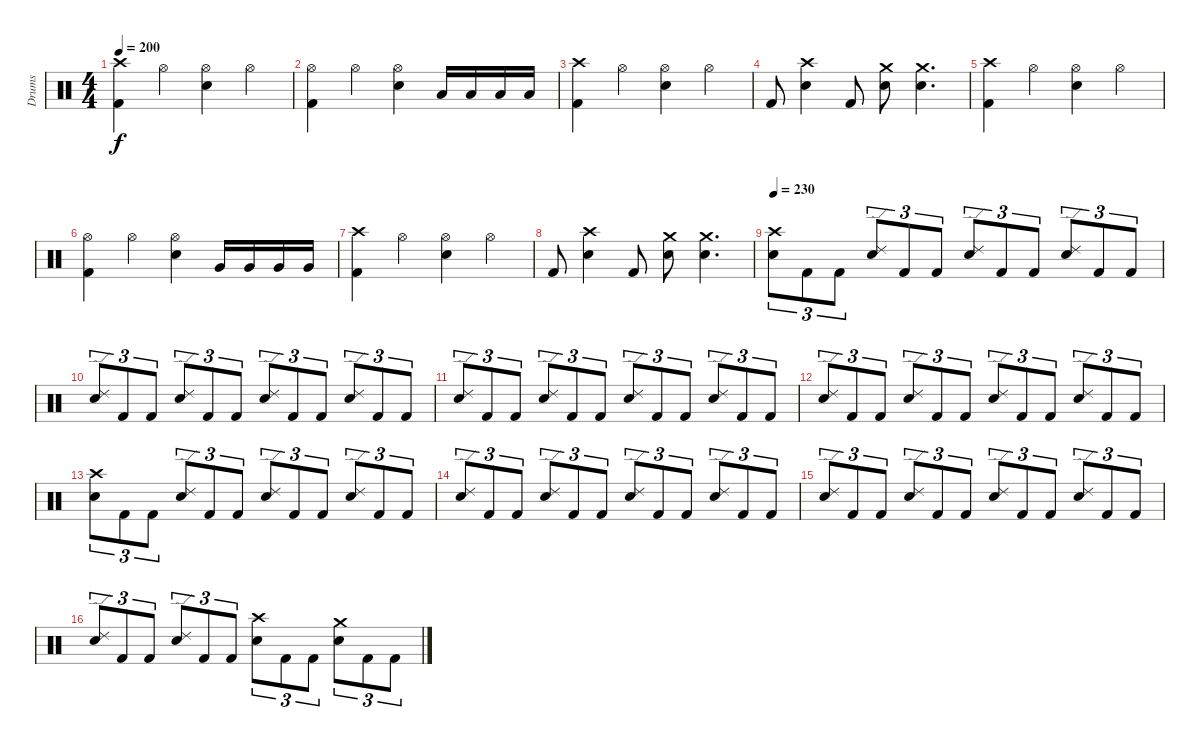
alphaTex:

\track ("Drums" "Drums") {instrument percussion}
\staff {score}
\articulation defaults
\ts (4 4)
\tempo 200
\clef neutral
\ks c
("Crash high (hit)" "Kick (hit) 2").4{dy f} "Hi-Hat (open)".4 ("Hi-Hat (open)" "Electric Snare (hit)").4 "Hi-Hat (open)".4 |
("Hi-Hat (open)" "Kick (hit) 2").4 "Hi-Hat (open)".4 ("Hi-Hat (open)" "Electric Snare (hit)").4 "Low Tom (hit)".16 "Low Tom (hit)".16 "Low Tom (hit)".16 "Low Tom (hit)".16 |
("Crash high (hit)" "Kick (hit) 2").4 "Hi-Hat (open)".4 ("Hi-Hat (open)" "Electric Snare (hit)").4 "Hi-Hat (open)".4 |
"Kick (hit) 2".8 ("Crash high (hit)" "Electric Snare (hit)").4 "Kick (hit) 2".8 ("Crash medium (hit)" "Electric Snare (hit)").8 ("Crash medium (hit)" "Electric Snare (hit)").4{d} |
("Crash high (hit)" "Kick (hit) 2").4 "Hi-Hat (open)".4 ("Hi-Hat (open)" "Electric Snare (hit)").4 "Hi-Hat (open)".4 |
("Hi-Hat (open)" "Kick (hit) 2").4 "Hi-Hat (open)".4 ("Hi-Hat (open)" "Electric Snare (hit)").4 "Very Low Tom (hit)".16 "Very Low Tom (hit)".16 "Very Low Tom (hit)".16 "Very Low Tom (hit)".16 |
("Crash high (hit)" "Kick (hit) 2").4 "Hi-Hat (open)".4 ("Hi-Hat (open)" "Electric Snare (hit)").4 "Hi-Hat (open)".4 |
"Kick (hit) 2".8 ("Crash high (hit)" "Electric Snare (hit)").4 "Kick (hit) 2".8 ("Crash medium (hit)" "Electric Snare (hit)").8 ("Crash medium (hit)" "Electric Snare (hit)").4{d} |
\tempo 230
("Crash high (hit)" "Electric Snare (hit)").8{tu (3 2)} "Kick (hit) 2".8{tu (3 2)} "Kick (hit) 2".8{tu (3 2)} ("Ride (edge) 2" "Electric Snare (hit)").8{tu (3 2)} "Kick (hit) 2".8{tu (3 2)} "Kick (hit) 2".8{tu (3 2)} ("Ride (edge) 2" "Electric Snare (hit)").8{tu (3 2)} "Kick (hit) 2".8{tu (3 2)} "Kick (hit) 2".8{tu (3 2)} ("Ride (edge) 2" "Electric Snare (hit)").8{tu (3 2)} "Kick (hit) 2".8{tu (3 2)} "Kick (hit) 2".8{tu (3 2)} |
("Ride (edge) 2" "Electric Snare (hit)").8{tu (3 2)} "Kick (hit) 2".8{tu (3 2)} "Kick (hit) 2".8{tu (3 2)} ("Ride (edge) 2" "Electric Snare (hit)").8{tu (3 2)} "Kick (hit) 2".8{tu (3 2)} "Kick (hit) 2".8{tu (3 2)} ("Ride (edge) 2" "Electric Snare (hit)").8{tu (3 2)} "Kick (hit) 2".8{tu (3 2)} "Kick (hit) 2".8{tu (3 2)} ("Ride (edge) 2" "Electric Snare (hit)").8{tu (3 2)} "Kick (hit) 2".8{tu (3 2)} "Kick (hit) 2".8{tu (3 2)} |
("Ride (edge) 2" "Electric Snare (hit)").8{tu (3 2)} "Kick (hit) 2".8{tu (3 2)} "Kick (hit) 2".8{tu (3 2)} ("Ride (edge) 2" "Electric Snare (hit)").8{tu (3 2)} "Kick (hit) 2".8{tu (3 2)} "Kick (hit) 2".8{tu (3 2)} ("Ride (edge) 2" "Electric Snare (hit)").8{tu (3 2)} "Kick (hit) 2".8{tu (3 2)} "Kick (hit) 2".8{tu (3 2)} ("Ride (edge) 2" "Electric Snare (hit)").8{tu (3 2)} "Kick (hit) 2".8{tu (3 2)} "Kick (hit) 2".8{tu (3 2)} |
("Ride (edge) 2" "Electric Snare (hit)").8{tu (3 2)} "Kick (hit) 2".8{tu (3 2)} "Kick (hit) 2".8{tu (3 2)} ("Ride (edge) 2" "Electric Snare (hit)").8{tu (3 2)} "Kick (hit) 2".8{tu (3 2)} "Kick (hit) 2".8{tu (3 2)} ("Ride (edge) 2" "Electric Snare (hit)").8{tu (3 2)} "Kick (hit) 2".8{tu (3 2)} "Kick (hit) 2".8{tu (3 2)} ("Ride (edge) 2" "Electric Snare (hit)").8{tu (3 2)} "Kick (hit) 2".8{tu (3 2)} "Kick (hit) 2".8{tu (3 2)} |
("Crash high (hit)" "Electric Snare (hit)").8{tu (3 2)} "Kick (hit) 2".8{tu (3 2)} "Kick (hit) 2".8{tu (3 2)} ("Ride (edge) 2" "Electric Snare (hit)").8{tu (3 2)} "Kick (hit) 2".8{tu (3 2)} "Kick (hit) 2".8{tu (3 2)} ("Ride (edge) 2" "Electric Snare (hit)").8{tu (3 2)} "Kick (hit) 2".8{tu (3 2)} "Kick (hit) 2".8{tu (3 2)} ("Ride (edge) 2" "Electric Snare (hit)").8{tu (3 2)} "Kick (hit) 2".8{tu (3 2)} "Kick (hit) 2".8{tu (3 2)} |
("Ride (edge) 2" "Electric Snare (hit)").8{tu (3 2)} "Kick (hit) 2".8{tu (3 2)} "Kick (hit) 2".8{tu (3 2)} ("Ride (edge) 2" "Electric Snare (hit)").8{tu (3 2)} "Kick (hit) 2".8{tu (3 2)} "Kick (hit) 2".8{tu (3 2)} ("Ride (edge) 2" "Electric Snare (hit)").8{tu (3 2)} "Kick (hit) 2".8{tu (3 2)} "Kick (hit) 2".8{tu (3 2)} ("Ride (edge) 2" "Electric Snare (hit)").8{tu (3 2)} "Kick (hit) 2".8{tu (3 2)} "Kick (hit) 2".8{tu (3 2)} |
("Ride (edge) 2" "Electric Snare (hit)").8{tu (3 2)} "Kick (hit) 2".8{tu (3 2)} "Kick (hit) 2".8{tu (3 2)} ("Ride (edge) 2" "Electric Snare (hit)").8{tu (3 2)} "Kick (hit) 2".8{tu (3 2)} "Kick (hit) 2".8{tu (3 2)} ("Ride (edge) 2" "Electric Snare (hit)").8{tu (3 2)} "Kick (hit) 2".8{tu (3 2)} "Kick (hit) 2".8{tu (3 2)} ("Ride (edge) 2" "Electric Snare (hit)").8{tu (3 2)} "Kick (hit) 2".8{tu (3 2)} "Kick (hit) 2".8{tu (3 2)} |
("Ride (edge) 2" "Electric Snare (hit)").8{tu (3 2)} "Kick (hit) 2".8{tu (3 2)} "Kick (hit) 2".8{tu (3 2)} ("Ride (edge) 2" "Electric Snare (hit)").8{tu (3 2)} "Kick (hit) 2".8{tu (3 2)} "Kick (hit) 2".8{tu (3 2)} ("Crash high (hit)" "Electric Snare (hit)").8{tu (3 2)} "Kick (hit) 2".8{tu (3 2)} "Kick (hit) 2".8{tu (3 2)} ("Crash medium (hit)" "Electric Snare (hit)").8{tu (3 2)} "Kick (hit) 2".8{tu (3 2)} "Kick (hit) 2".8{tu (3 2)}
